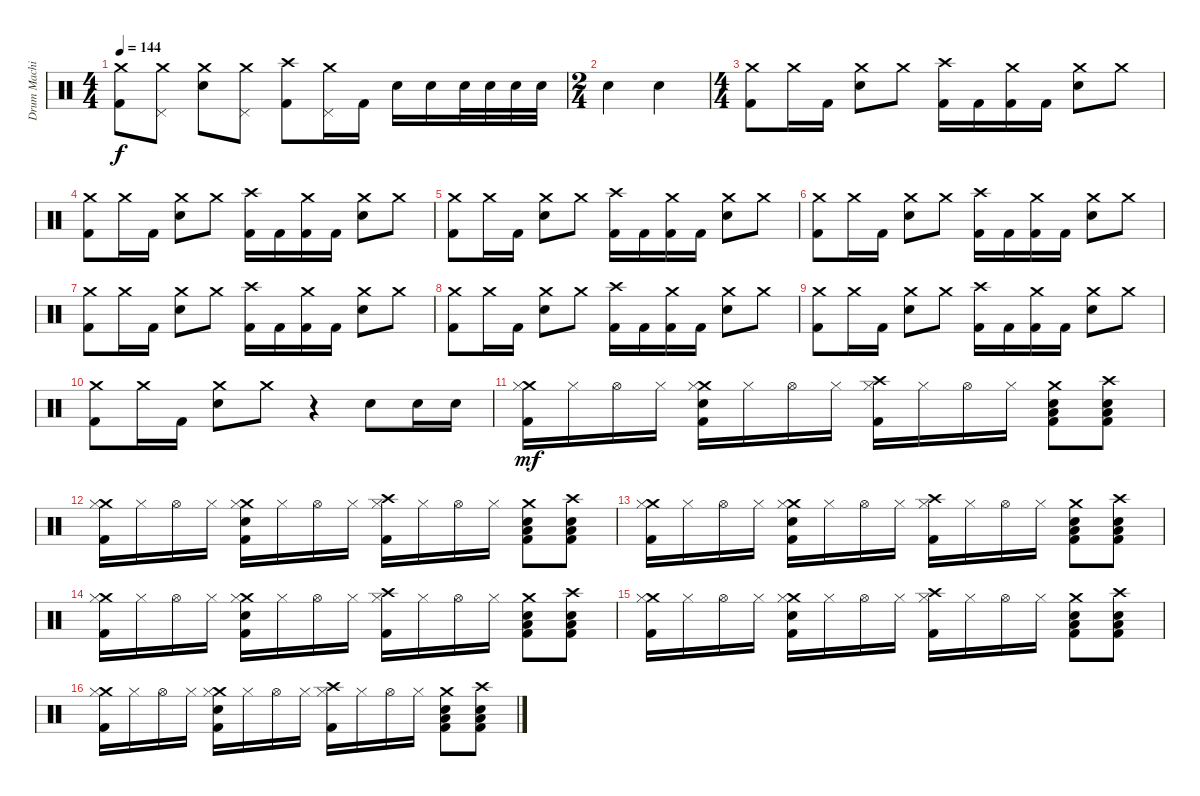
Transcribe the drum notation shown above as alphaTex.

\track ("Drum Machine" "Drum Machi") {instrument percussion}
\staff {score}
\articulation defaults
\ts (4 4)
\tempo 144
\clef neutral
\ks c
("Crash medium (hit)" "Kick (hit) 2").8{dy f} ("Crash medium (hit)" "Pedal Hi-Hat (hit)").8 ("Crash medium (hit)" "Hand Clap (hit)").8 ("Crash medium (hit)" "Pedal Hi-Hat (hit)").8 ("Crash high (hit)" "Kick (hit) 2").8 ("Crash medium (hit)" "Pedal Hi-Hat (hit)").16 "Kick (hit) 2".16 "Electric Snare (hit)".16 "Electric Snare (hit)".16 "Electric Snare (hit)".32 "Electric Snare (hit)".32 "Electric Snare (hit)".32 "Electric Snare (hit)".32 |
\ts (2 4)
"Electric Snare (hit)".4 "Electric Snare (hit)".4 |
\ts (4 4)
("Crash medium (hit)" "Kick (hit) 2").8 "Crash medium (hit)".16 "Kick (hit) 2".16 ("Crash medium (hit)" "Hand Clap (hit)").8 "Crash medium (hit)".8 ("Crash high (hit)" "Kick (hit) 2").16 "Kick (hit) 2".16 ("Crash medium (hit)" "Kick (hit) 2").16 "Kick (hit) 2".16 ("Crash medium (hit)" "Hand Clap (hit)").8 "Crash medium (hit)".8 |
("Crash medium (hit)" "Kick (hit) 2").8 "Crash medium (hit)".16 "Kick (hit) 2".16 ("Crash medium (hit)" "Hand Clap (hit)").8 "Crash medium (hit)".8 ("Crash high (hit)" "Kick (hit) 2").16 "Kick (hit) 2".16 ("Crash medium (hit)" "Kick (hit) 2").16 "Kick (hit) 2".16 ("Crash medium (hit)" "Hand Clap (hit)").8 "Crash medium (hit)".8 |
("Crash medium (hit)" "Kick (hit) 2").8 "Crash medium (hit)".16 "Kick (hit) 2".16 ("Crash medium (hit)" "Hand Clap (hit)").8 "Crash medium (hit)".8 ("Crash high (hit)" "Kick (hit) 2").16 "Kick (hit) 2".16 ("Crash medium (hit)" "Kick (hit) 2").16 "Kick (hit) 2".16 ("Crash medium (hit)" "Hand Clap (hit)").8 "Crash medium (hit)".8 |
("Crash medium (hit)" "Kick (hit) 2").8 "Crash medium (hit)".16 "Kick (hit) 2".16 ("Crash medium (hit)" "Hand Clap (hit)").8 "Crash medium (hit)".8 ("Crash high (hit)" "Kick (hit) 2").16 "Kick (hit) 2".16 ("Crash medium (hit)" "Kick (hit) 2").16 "Kick (hit) 2".16 ("Crash medium (hit)" "Hand Clap (hit)").8 "Crash medium (hit)".8 |
("Crash medium (hit)" "Kick (hit) 2").8 "Crash medium (hit)".16 "Kick (hit) 2".16 ("Crash medium (hit)" "Hand Clap (hit)").8 "Crash medium (hit)".8 ("Crash high (hit)" "Kick (hit) 2").16 "Kick (hit) 2".16 ("Crash medium (hit)" "Kick (hit) 2").16 "Kick (hit) 2".16 ("Crash medium (hit)" "Hand Clap (hit)").8 "Crash medium (hit)".8 |
("Crash medium (hit)" "Kick (hit) 2").8 "Crash medium (hit)".16 "Kick (hit) 2".16 ("Crash medium (hit)" "Hand Clap (hit)").8 "Crash medium (hit)".8 ("Crash high (hit)" "Kick (hit) 2").16 "Kick (hit) 2".16 ("Crash medium (hit)" "Kick (hit) 2").16 "Kick (hit) 2".16 ("Crash medium (hit)" "Hand Clap (hit)").8 "Crash medium (hit)".8 |
("Crash medium (hit)" "Kick (hit) 2").8 "Crash medium (hit)".16 "Kick (hit) 2".16 ("Crash medium (hit)" "Hand Clap (hit)").8 "Crash medium (hit)".8 ("Crash high (hit)" "Kick (hit) 2").16 "Kick (hit) 2".16 ("Crash medium (hit)" "Kick (hit) 2").16 "Kick (hit) 2".16 ("Crash medium (hit)" "Hand Clap (hit)").8 "Crash medium (hit)".8 |
("Crash medium (hit)" "Kick (hit) 2").8 "Crash medium (hit)".16 "Kick (hit) 2".16 ("Crash medium (hit)" "Hand Clap (hit)").8 "Crash medium (hit)".8 r.4 "Electric Snare (hit)".8 "Electric Snare (hit)".16 "Electric Snare (hit)".16 |
("Crash medium (hit)" "Hi-Hat (closed)" "Kick (hit) 2").16{dy mf} "Hi-Hat (closed)".16 "Hi-Hat (open)".16 "Hi-Hat (closed)".16 ("Crash medium (hit)" "Hi-Hat (closed)" "Hand Clap (hit)" "Kick (hit) 2").16 "Hi-Hat (closed)".16 "Hi-Hat (open)".16 "Hi-Hat (closed)".16 ("Crash high (hit)" "Hi-Hat (closed)" "Kick (hit) 2").16 "Hi-Hat (closed)".16 "Hi-Hat (open)".16 "Hi-Hat (closed)".16 ("Crash medium (hit)" "Hand Clap (hit)" "Low Floor Tom (hit)" "Kick (hit) 2").8 ("Crash high (hit)" "Hand Clap (hit)" "Low Floor Tom (hit)" "Kick (hit) 2").8 |
("Crash medium (hit)" "Hi-Hat (closed)" "Kick (hit) 2").16 "Hi-Hat (closed)".16 "Hi-Hat (open)".16 "Hi-Hat (closed)".16 ("Crash medium (hit)" "Hi-Hat (closed)" "Hand Clap (hit)" "Kick (hit) 2").16 "Hi-Hat (closed)".16 "Hi-Hat (open)".16 "Hi-Hat (closed)".16 ("Crash high (hit)" "Hi-Hat (closed)" "Kick (hit) 2").16 "Hi-Hat (closed)".16 "Hi-Hat (open)".16 "Hi-Hat (closed)".16 ("Crash medium (hit)" "Hand Clap (hit)" "Low Floor Tom (hit)" "Kick (hit) 2").8 ("Crash high (hit)" "Hand Clap (hit)" "Low Floor Tom (hit)" "Kick (hit) 2").8 |
("Crash medium (hit)" "Hi-Hat (closed)" "Kick (hit) 2").16 "Hi-Hat (closed)".16 "Hi-Hat (open)".16 "Hi-Hat (closed)".16 ("Crash medium (hit)" "Hi-Hat (closed)" "Hand Clap (hit)" "Kick (hit) 2").16 "Hi-Hat (closed)".16 "Hi-Hat (open)".16 "Hi-Hat (closed)".16 ("Crash high (hit)" "Hi-Hat (closed)" "Kick (hit) 2").16 "Hi-Hat (closed)".16 "Hi-Hat (open)".16 "Hi-Hat (closed)".16 ("Crash medium (hit)" "Hand Clap (hit)" "Low Floor Tom (hit)" "Kick (hit) 2").8 ("Crash high (hit)" "Hand Clap (hit)" "Low Floor Tom (hit)" "Kick (hit) 2").8 |
("Crash medium (hit)" "Hi-Hat (closed)" "Kick (hit) 2").16 "Hi-Hat (closed)".16 "Hi-Hat (open)".16 "Hi-Hat (closed)".16 ("Crash medium (hit)" "Hi-Hat (closed)" "Hand Clap (hit)" "Kick (hit) 2").16 "Hi-Hat (closed)".16 "Hi-Hat (open)".16 "Hi-Hat (closed)".16 ("Crash high (hit)" "Hi-Hat (closed)" "Kick (hit) 2").16 "Hi-Hat (closed)".16 "Hi-Hat (open)".16 "Hi-Hat (closed)".16 ("Crash medium (hit)" "Hand Clap (hit)" "Low Floor Tom (hit)" "Kick (hit) 2").8 ("Crash high (hit)" "Hand Clap (hit)" "Low Floor Tom (hit)" "Kick (hit) 2").8 |
("Crash medium (hit)" "Hi-Hat (closed)" "Kick (hit) 2").16 "Hi-Hat (closed)".16 "Hi-Hat (open)".16 "Hi-Hat (closed)".16 ("Crash medium (hit)" "Hi-Hat (closed)" "Hand Clap (hit)" "Kick (hit) 2").16 "Hi-Hat (closed)".16 "Hi-Hat (open)".16 "Hi-Hat (closed)".16 ("Crash high (hit)" "Hi-Hat (closed)" "Kick (hit) 2").16 "Hi-Hat (closed)".16 "Hi-Hat (open)".16 "Hi-Hat (closed)".16 ("Crash medium (hit)" "Hand Clap (hit)" "Low Floor Tom (hit)" "Kick (hit) 2").8 ("Crash high (hit)" "Hand Clap (hit)" "Low Floor Tom (hit)" "Kick (hit) 2").8 |
("Crash medium (hit)" "Hi-Hat (closed)" "Kick (hit) 2").16 "Hi-Hat (closed)".16 "Hi-Hat (open)".16 "Hi-Hat (closed)".16 ("Crash medium (hit)" "Hi-Hat (closed)" "Hand Clap (hit)" "Kick (hit) 2").16 "Hi-Hat (closed)".16 "Hi-Hat (open)".16 "Hi-Hat (closed)".16 ("Crash high (hit)" "Hi-Hat (closed)" "Kick (hit) 2").16 "Hi-Hat (closed)".16 "Hi-Hat (open)".16 "Hi-Hat (closed)".16 ("Crash medium (hit)" "Hand Clap (hit)" "Low Floor Tom (hit)" "Kick (hit) 2").8 ("Crash high (hit)" "Hand Clap (hit)" "Low Floor Tom (hit)" "Kick (hit) 2").8
